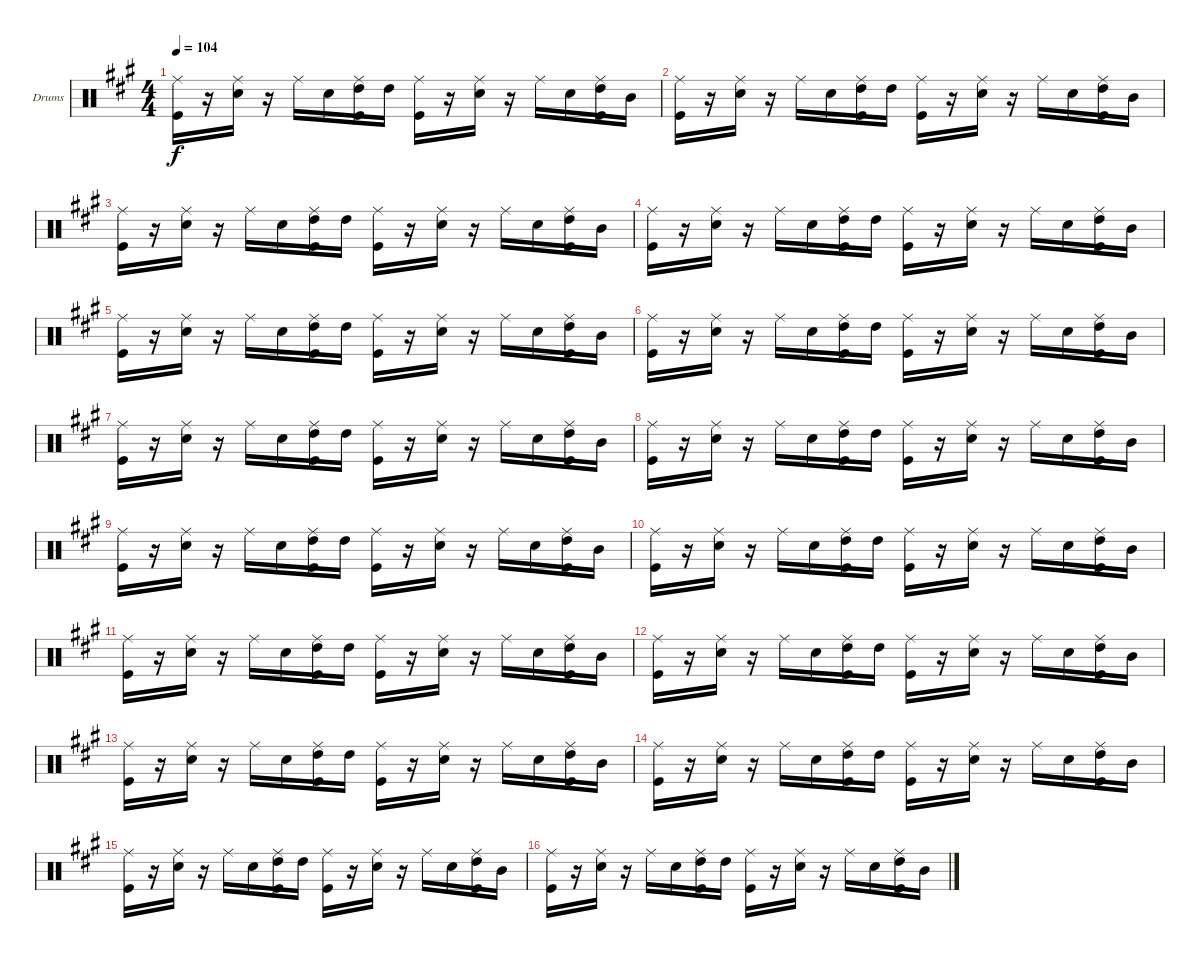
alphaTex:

\bracketExtendMode groupsimilarinstruments
\firstSystemTrackNameOrientation horizontal
\otherSystemsTrackNameOrientation horizontal
\track ("Drumkit" "Drums") {instrument percussion}
\staff {score}
\articulation defaults
\ts (4 4)
\tempo 104
\clef neutral
\ks a
("Ride (middle)" "Kick (hit)").16{dy f} r.16 ("Ride (middle)" "Snare (hit) 2").16 r.16 "Ride (middle)".16 "Snare (hit) 2".16 ("Ride (middle)" "High Tom (hit)" "Kick (hit)").16 "High Tom (hit)".16 ("Ride (middle)" "Kick (hit)").16 r.16 ("Ride (middle)" "Snare (hit) 2").16 r.16 "Ride (middle)".16 "Snare (hit) 2".16 ("Ride (middle)" "High Tom (hit)" "Kick (hit)").16 "Mid Tom (hit)".16 |
("Ride (middle)" "Kick (hit)").16 r.16 ("Ride (middle)" "Snare (hit) 2").16 r.16 "Ride (middle)".16 "Snare (hit) 2".16 ("Ride (middle)" "High Tom (hit)" "Kick (hit)").16 "High Tom (hit)".16 ("Ride (middle)" "Kick (hit)").16 r.16 ("Ride (middle)" "Snare (hit) 2").16 r.16 "Ride (middle)".16 "Snare (hit) 2".16 ("Ride (middle)" "High Tom (hit)" "Kick (hit)").16 "Mid Tom (hit)".16 |
("Ride (middle)" "Kick (hit)").16 r.16 ("Ride (middle)" "Snare (hit) 2").16 r.16 "Ride (middle)".16 "Snare (hit) 2".16 ("Ride (middle)" "High Tom (hit)" "Kick (hit)").16 "High Tom (hit)".16 ("Ride (middle)" "Kick (hit)").16 r.16 ("Ride (middle)" "Snare (hit) 2").16 r.16 "Ride (middle)".16 "Snare (hit) 2".16 ("Ride (middle)" "High Tom (hit)" "Kick (hit)").16 "Mid Tom (hit)".16 |
("Ride (middle)" "Kick (hit)").16 r.16 ("Ride (middle)" "Snare (hit) 2").16 r.16 "Ride (middle)".16 "Snare (hit) 2".16 ("Ride (middle)" "High Tom (hit)" "Kick (hit)").16 "High Tom (hit)".16 ("Ride (middle)" "Kick (hit)").16 r.16 ("Ride (middle)" "Snare (hit) 2").16 r.16 "Ride (middle)".16 "Snare (hit) 2".16 ("Ride (middle)" "High Tom (hit)" "Kick (hit)").16 "Mid Tom (hit)".16 |
("Ride (middle)" "Kick (hit)").16 r.16 ("Ride (middle)" "Snare (hit) 2").16 r.16 "Ride (middle)".16 "Snare (hit) 2".16 ("Ride (middle)" "High Tom (hit)" "Kick (hit)").16 "High Tom (hit)".16 ("Ride (middle)" "Kick (hit)").16 r.16 ("Ride (middle)" "Snare (hit) 2").16 r.16 "Ride (middle)".16 "Snare (hit) 2".16 ("Ride (middle)" "High Tom (hit)" "Kick (hit)").16 "Mid Tom (hit)".16 |
("Ride (middle)" "Kick (hit)").16 r.16 ("Ride (middle)" "Snare (hit) 2").16 r.16 "Ride (middle)".16 "Snare (hit) 2".16 ("Ride (middle)" "High Tom (hit)" "Kick (hit)").16 "High Tom (hit)".16 ("Ride (middle)" "Kick (hit)").16 r.16 ("Ride (middle)" "Snare (hit) 2").16 r.16 "Ride (middle)".16 "Snare (hit) 2".16 ("Ride (middle)" "High Tom (hit)" "Kick (hit)").16 "Mid Tom (hit)".16 |
("Ride (middle)" "Kick (hit)").16 r.16 ("Ride (middle)" "Snare (hit) 2").16 r.16 "Ride (middle)".16 "Snare (hit) 2".16 ("Ride (middle)" "High Tom (hit)" "Kick (hit)").16 "High Tom (hit)".16 ("Ride (middle)" "Kick (hit)").16 r.16 ("Ride (middle)" "Snare (hit) 2").16 r.16 "Ride (middle)".16 "Snare (hit) 2".16 ("Ride (middle)" "High Tom (hit)" "Kick (hit)").16 "Mid Tom (hit)".16 |
("Ride (middle)" "Kick (hit)").16 r.16 ("Ride (middle)" "Snare (hit) 2").16 r.16 "Ride (middle)".16 "Snare (hit) 2".16 ("Ride (middle)" "High Tom (hit)" "Kick (hit)").16 "High Tom (hit)".16 ("Ride (middle)" "Kick (hit)").16 r.16 ("Ride (middle)" "Snare (hit) 2").16 r.16 "Ride (middle)".16 "Snare (hit) 2".16 ("Ride (middle)" "High Tom (hit)" "Kick (hit)").16 "Mid Tom (hit)".16 |
("Ride (middle)" "Kick (hit)").16 r.16 ("Ride (middle)" "Snare (hit) 2").16 r.16 "Ride (middle)".16 "Snare (hit) 2".16 ("Ride (middle)" "High Tom (hit)" "Kick (hit)").16 "High Tom (hit)".16 ("Ride (middle)" "Kick (hit)").16 r.16 ("Ride (middle)" "Snare (hit) 2").16 r.16 "Ride (middle)".16 "Snare (hit) 2".16 ("Ride (middle)" "High Tom (hit)" "Kick (hit)").16 "Mid Tom (hit)".16 |
("Ride (middle)" "Kick (hit)").16 r.16 ("Ride (middle)" "Snare (hit) 2").16 r.16 "Ride (middle)".16 "Snare (hit) 2".16 ("Ride (middle)" "High Tom (hit)" "Kick (hit)").16 "High Tom (hit)".16 ("Ride (middle)" "Kick (hit)").16 r.16 ("Ride (middle)" "Snare (hit) 2").16 r.16 "Ride (middle)".16 "Snare (hit) 2".16 ("Ride (middle)" "High Tom (hit)" "Kick (hit)").16 "Mid Tom (hit)".16 |
("Ride (middle)" "Kick (hit)").16 r.16 ("Ride (middle)" "Snare (hit) 2").16 r.16 "Ride (middle)".16 "Snare (hit) 2".16 ("Ride (middle)" "High Tom (hit)" "Kick (hit)").16 "High Tom (hit)".16 ("Ride (middle)" "Kick (hit)").16 r.16 ("Ride (middle)" "Snare (hit) 2").16 r.16 "Ride (middle)".16 "Snare (hit) 2".16 ("Ride (middle)" "High Tom (hit)" "Kick (hit)").16 "Mid Tom (hit)".16 |
("Ride (middle)" "Kick (hit)").16 r.16 ("Ride (middle)" "Snare (hit) 2").16 r.16 "Ride (middle)".16 "Snare (hit) 2".16 ("Ride (middle)" "High Tom (hit)" "Kick (hit)").16 "High Tom (hit)".16 ("Ride (middle)" "Kick (hit)").16 r.16 ("Ride (middle)" "Snare (hit) 2").16 r.16 "Ride (middle)".16 "Snare (hit) 2".16 ("Ride (middle)" "High Tom (hit)" "Kick (hit)").16 "Mid Tom (hit)".16 |
("Ride (middle)" "Kick (hit)").16 r.16 ("Ride (middle)" "Snare (hit) 2").16 r.16 "Ride (middle)".16 "Snare (hit) 2".16 ("Ride (middle)" "High Tom (hit)" "Kick (hit)").16 "High Tom (hit)".16 ("Ride (middle)" "Kick (hit)").16 r.16 ("Ride (middle)" "Snare (hit) 2").16 r.16 "Ride (middle)".16 "Snare (hit) 2".16 ("Ride (middle)" "High Tom (hit)" "Kick (hit)").16 "Mid Tom (hit)".16 |
("Ride (middle)" "Kick (hit)").16 r.16 ("Ride (middle)" "Snare (hit) 2").16 r.16 "Ride (middle)".16 "Snare (hit) 2".16 ("Ride (middle)" "High Tom (hit)" "Kick (hit)").16 "High Tom (hit)".16 ("Ride (middle)" "Kick (hit)").16 r.16 ("Ride (middle)" "Snare (hit) 2").16 r.16 "Ride (middle)".16 "Snare (hit) 2".16 ("Ride (middle)" "High Tom (hit)" "Kick (hit)").16 "Mid Tom (hit)".16 |
("Ride (middle)" "Kick (hit)").16 r.16 ("Ride (middle)" "Snare (hit) 2").16 r.16 "Ride (middle)".16 "Snare (hit) 2".16 ("Ride (middle)" "High Tom (hit)" "Kick (hit)").16 "High Tom (hit)".16 ("Ride (middle)" "Kick (hit)").16 r.16 ("Ride (middle)" "Snare (hit) 2").16 r.16 "Ride (middle)".16 "Snare (hit) 2".16 ("Ride (middle)" "High Tom (hit)" "Kick (hit)").16 "Mid Tom (hit)".16 |
("Ride (middle)" "Kick (hit)").16 r.16 ("Ride (middle)" "Snare (hit) 2").16 r.16 "Ride (middle)".16 "Snare (hit) 2".16 ("Ride (middle)" "High Tom (hit)" "Kick (hit)").16 "High Tom (hit)".16 ("Ride (middle)" "Kick (hit)").16 r.16 ("Ride (middle)" "Snare (hit) 2").16 r.16 "Ride (middle)".16 "Snare (hit) 2".16 ("Ride (middle)" "High Tom (hit)" "Kick (hit)").16 "Mid Tom (hit)".16
